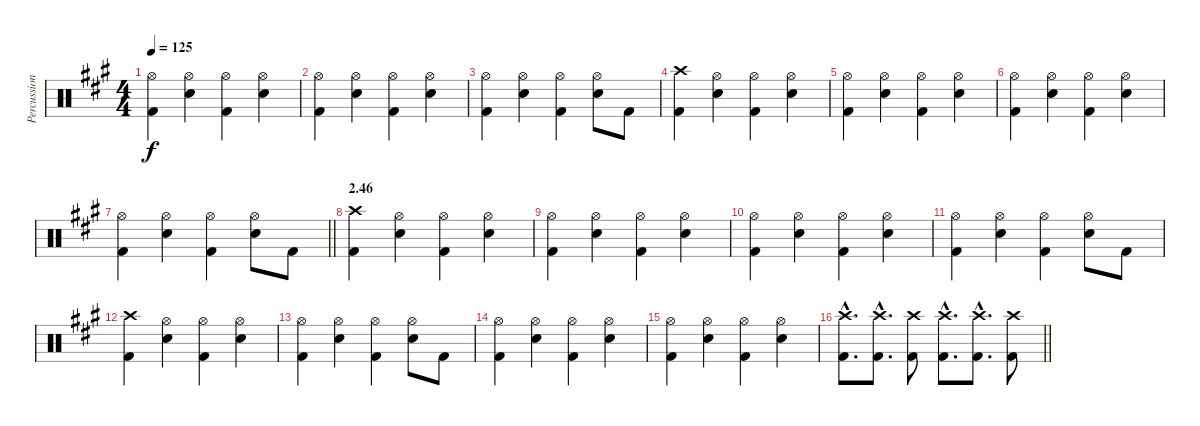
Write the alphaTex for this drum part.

\track ("Percussion" "Percussion") {instrument percussion}
\staff {score}
\articulation defaults
\ts (4 4)
\tempo 125
\clef neutral
\ks f#minor
("Hi-Hat (open)" "Kick (hit) 2").4{dy f} ("Hi-Hat (open)" "Electric Snare (hit)").4 ("Hi-Hat (open)" "Kick (hit) 2").4 ("Hi-Hat (open)" "Electric Snare (hit)").4 |
("Hi-Hat (open)" "Kick (hit) 2").4 ("Hi-Hat (open)" "Electric Snare (hit)").4 ("Hi-Hat (open)" "Kick (hit) 2").4 ("Hi-Hat (open)" "Electric Snare (hit)").4 |
("Hi-Hat (open)" "Kick (hit) 2").4 ("Hi-Hat (open)" "Electric Snare (hit)").4 ("Hi-Hat (open)" "Kick (hit) 2").4 ("Hi-Hat (open)" "Electric Snare (hit)").8 "Kick (hit) 2".8 |
("Crash high (hit)" "Kick (hit) 2").4 ("Hi-Hat (open)" "Electric Snare (hit)").4 ("Hi-Hat (open)" "Kick (hit) 2").4 ("Hi-Hat (open)" "Electric Snare (hit)").4 |
("Hi-Hat (open)" "Kick (hit) 2").4 ("Hi-Hat (open)" "Electric Snare (hit)").4 ("Hi-Hat (open)" "Kick (hit) 2").4 ("Hi-Hat (open)" "Electric Snare (hit)").4 |
("Hi-Hat (open)" "Kick (hit) 2").4 ("Hi-Hat (open)" "Electric Snare (hit)").4 ("Hi-Hat (open)" "Kick (hit) 2").4 ("Hi-Hat (open)" "Electric Snare (hit)").4 |
\barLineRight lightlight
("Hi-Hat (open)" "Kick (hit) 2").4 ("Hi-Hat (open)" "Electric Snare (hit)").4 ("Hi-Hat (open)" "Kick (hit) 2").4 ("Hi-Hat (open)" "Electric Snare (hit)").8 "Kick (hit) 2".8 |
\section ("" "2.46")
("Crash high (hit)" "Kick (hit) 2").4 ("Hi-Hat (open)" "Electric Snare (hit)").4 ("Hi-Hat (open)" "Kick (hit) 2").4 ("Hi-Hat (open)" "Electric Snare (hit)").4 |
("Hi-Hat (open)" "Kick (hit) 2").4 ("Hi-Hat (open)" "Electric Snare (hit)").4 ("Hi-Hat (open)" "Kick (hit) 2").4 ("Hi-Hat (open)" "Electric Snare (hit)").4 |
("Hi-Hat (open)" "Kick (hit) 2").4 ("Hi-Hat (open)" "Electric Snare (hit)").4 ("Hi-Hat (open)" "Kick (hit) 2").4 ("Hi-Hat (open)" "Electric Snare (hit)").4 |
("Hi-Hat (open)" "Kick (hit) 2").4 ("Hi-Hat (open)" "Electric Snare (hit)").4 ("Hi-Hat (open)" "Kick (hit) 2").4 ("Hi-Hat (open)" "Electric Snare (hit)").8 "Kick (hit) 2".8 |
("Crash high (hit)" "Kick (hit) 2").4 ("Hi-Hat (open)" "Electric Snare (hit)").4 ("Hi-Hat (open)" "Kick (hit) 2").4 ("Hi-Hat (open)" "Electric Snare (hit)").4 |
("Hi-Hat (open)" "Kick (hit) 2").4 ("Hi-Hat (open)" "Electric Snare (hit)").4 ("Hi-Hat (open)" "Kick (hit) 2").4 ("Hi-Hat (open)" "Electric Snare (hit)").8 "Kick (hit) 2".8 |
("Hi-Hat (open)" "Kick (hit) 2").4 ("Hi-Hat (open)" "Electric Snare (hit)").4 ("Hi-Hat (open)" "Kick (hit) 2").4 ("Hi-Hat (open)" "Electric Snare (hit)").4 |
("Hi-Hat (open)" "Kick (hit) 2").4 ("Hi-Hat (open)" "Electric Snare (hit)").4 ("Hi-Hat (open)" "Kick (hit) 2").4 ("Hi-Hat (open)" "Electric Snare (hit)").4 |
\barLineRight lightlight
("Crash high (hit)"{hac} "Kick (hit) 2"{hac}).8{d} ("Crash high (hit)"{hac} "Kick (hit) 2"{hac}).8{d} ("Crash high (hit)" "Kick (hit) 2").8 ("Crash high (hit)"{hac} "Kick (hit) 2"{hac}).8{d} ("Crash high (hit)"{hac} "Kick (hit) 2"{hac}).8{d} ("Crash high (hit)" "Kick (hit) 2").8
